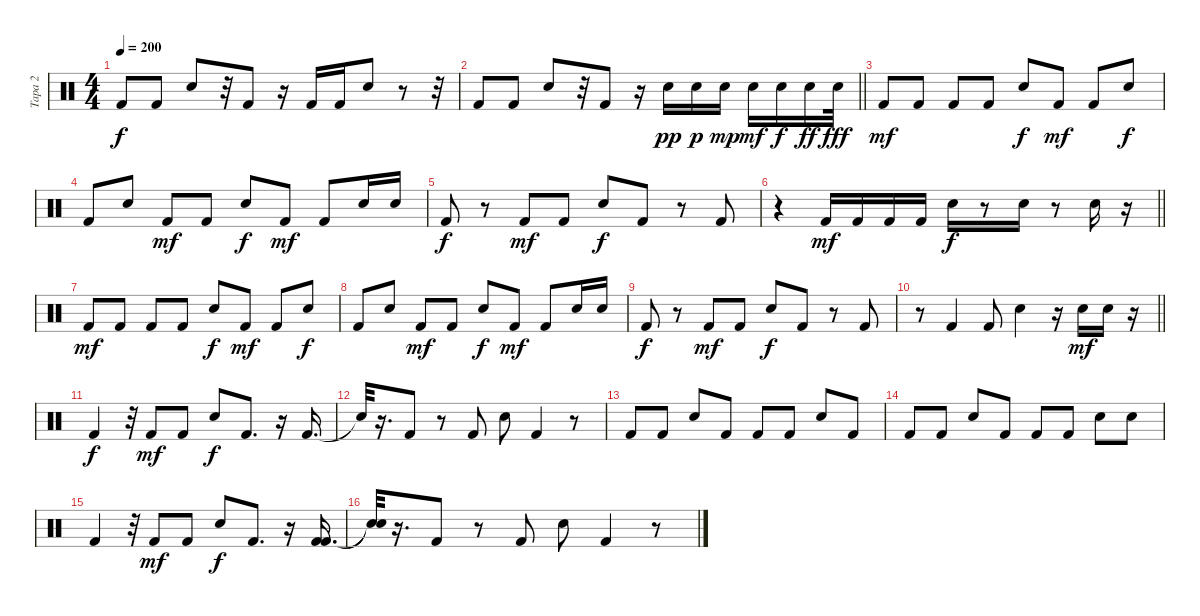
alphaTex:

\track ("Tapa 2" "Tapa 2") {instrument percussion}
\staff {score}
\articulation defaults
\ts (4 4)
\tempo 200
\clef neutral
\ks c "Kick (hit) 2".8{dy f} "Kick (hit) 2".8 "Snare (hit) 2".8
r.32 "Kick (hit) 2".8 r.16 "Kick (hit) 2".16 "Kick (hit) 2".16 "Snare (hit) 2".8 r.8 r.32 |
\barLineRight lightlight "Kick (hit) 2".8 "Kick (hit) 2".8 "Snare (hit) 2".8
r.32 "Kick (hit) 2".8 r.16 "Snare (hit) 2".16{dy pp} "Snare (hit) 2".16{dy p} "Snare (hit) 2".16{dy mp} "Snare (hit) 2".16{dy mf} "Snare (hit) 2".16{dy f} "Snare (hit) 2".16{dy ff} "Snare (hit) 2".32{dy fff} |
"Kick (hit) 2".8{dy mf} "Kick (hit) 2".8 "Kick (hit) 2".8 "Kick (hit) 2".8 "Snare (hit) 2".8{dy f} "Kick (hit) 2".8{dy mf} "Kick (hit) 2".8 "Snare (hit) 2".8{dy f} |
"Kick (hit) 2".8 "Snare (hit) 2".8 "Kick (hit) 2".8{dy mf} "Kick (hit) 2".8 "Snare (hit) 2".8{dy f} "Kick (hit) 2".8{dy mf} "Kick (hit) 2".8 "Snare (hit) 2".16 "Snare (hit) 2".16 |
"Kick (hit) 2".8{dy f} r.8 "Kick (hit) 2".8{dy mf} "Kick (hit) 2".8 "Snare (hit) 2".8{dy f} "Kick (hit) 2".8 r.8 "Kick (hit) 2".8 |
\barLineRight lightlight
r.4 "Kick (hit) 2".16{dy mf} "Kick (hit) 2".16 "Kick (hit) 2".16 "Kick (hit) 2".16 "Snare (hit) 2".16{dy f} r.8 "Snare (hit) 2".16 r.8 "Snare (hit) 2".16 r.16 |
"Kick (hit) 2".8{dy mf} "Kick (hit) 2".8 "Kick (hit) 2".8 "Kick (hit) 2".8 "Snare (hit) 2".8{dy f} "Kick (hit) 2".8{dy mf} "Kick (hit) 2".8 "Snare (hit) 2".8{dy f} |
"Kick (hit) 2".8 "Snare (hit) 2".8 "Kick (hit) 2".8{dy mf} "Kick (hit) 2".8 "Snare (hit) 2".8{dy f} "Kick (hit) 2".8{dy mf} "Kick (hit) 2".8 "Snare (hit) 2".16 "Snare (hit) 2".16 |
"Kick (hit) 2".8{dy f} r.8 "Kick (hit) 2".8{dy mf} "Kick (hit) 2".8 "Snare (hit) 2".8{dy f} "Kick (hit) 2".8 r.8 "Kick (hit) 2".8 |
\barLineRight lightlight
r.8 "Kick (hit) 2".4 "Kick (hit) 2".8 "Snare (hit) 2".4 r.16 "Snare (hit) 2".16{dy mf} "Snare (hit) 2".16 r.16 |
"Kick (hit) 2".4{dy f} r.32 "Kick (hit) 2".8{dy mf} "Kick (hit) 2".8 "Snare (hit) 2".8{dy f} "Kick (hit) 2".8{d} r.16 "Kick (hit) 2".16{d} |
"Snare (hit)"{t}.32 r.16{d} "Kick (hit) 2".8 r.8 "Kick (hit) 2".8 "Snare (hit) 2".8 "Kick (hit) 2".4 r.8 |
"Kick (hit) 2".8 "Kick (hit) 2".8 "Snare (hit) 2".8 "Kick (hit) 2".8 "Kick (hit) 2".8 "Kick (hit) 2".8 "Snare (hit) 2".8 "Kick (hit) 2".8 |
"Kick (hit) 2".8 "Kick (hit) 2".8 "Snare (hit) 2".8 "Kick (hit) 2".8 "Kick (hit) 2".8 "Kick (hit) 2".8 "Snare (hit) 2".8 "Snare (hit) 2".8 |
"Kick (hit) 2".4 r.32 "Kick (hit) 2".8{dy mf} "Kick (hit) 2".8 "Snare (hit) 2".8{dy f} "Kick (hit) 2".8{d} r.16 ("Kick (hit) 2" "Kick (hit) 2").16{d} |
("Snare (hit)"{t} "Snare (hit)"{t}).32 r.16{d} "Kick (hit) 2".8 r.8 "Kick (hit) 2".8 "Snare (hit) 2".8 "Kick (hit) 2".4 r.8
